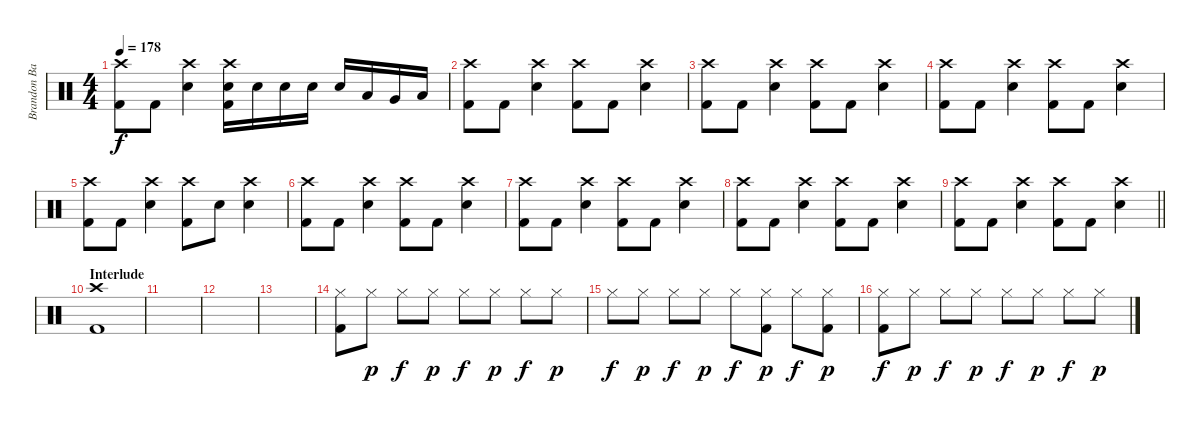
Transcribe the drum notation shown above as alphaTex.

\track ("Brandon Barnes - Drums" "Brandon Ba") {instrument percussion}
\staff {score}
\articulation defaults
\ts (4 4)
\tempo 178
\clef neutral
\ks c
("Crash high (hit)" "Kick (hit) 2").8{dy f} "Kick (hit) 2".8 ("Snare (hit) 2" "Crash high (hit)").4 ("Crash high (hit)" "Kick (hit) 2" "Snare (hit) 2").16 "Snare (hit) 2".16 "Snare (hit) 2".16 "Snare (hit) 2".16 "Snare (hit) 2".16 "Low Tom (hit)".16 "Very Low Tom (hit)".16 "Low Floor Tom (hit)".16 |
("Crash high (hit)" "Kick (hit) 2").8 "Kick (hit) 2".8 ("Snare (hit) 2" "Crash high (hit)").4 ("Crash high (hit)" "Kick (hit) 2").8 "Kick (hit) 2".8 ("Snare (hit) 2" "Crash high (hit)").4 |
("Crash high (hit)" "Kick (hit) 2").8 "Kick (hit) 2".8 ("Snare (hit) 2" "Crash high (hit)").4 ("Crash high (hit)" "Kick (hit) 2").8 "Kick (hit) 2".8 ("Snare (hit) 2" "Crash high (hit)").4 |
("Crash high (hit)" "Kick (hit) 2").8 "Kick (hit) 2".8 ("Snare (hit) 2" "Crash high (hit)").4 ("Crash high (hit)" "Kick (hit) 2").8 "Kick (hit) 2".8 ("Snare (hit) 2" "Crash high (hit)").4 |
("Crash high (hit)" "Kick (hit) 2").8 "Kick (hit) 2".8 ("Snare (hit) 2" "Crash high (hit)").4 ("Crash high (hit)" "Kick (hit) 2").8 "Snare (hit) 2".8 ("Snare (hit) 2" "Crash high (hit)").4 |
("Crash high (hit)" "Kick (hit) 2").8 "Kick (hit) 2".8 ("Snare (hit) 2" "Crash high (hit)").4 ("Crash high (hit)" "Kick (hit) 2").8 "Kick (hit) 2".8 ("Snare (hit) 2" "Crash high (hit)").4 |
("Crash high (hit)" "Kick (hit) 2").8 "Kick (hit) 2".8 ("Snare (hit) 2" "Crash high (hit)").4 ("Crash high (hit)" "Kick (hit) 2").8 "Kick (hit) 2".8 ("Snare (hit) 2" "Crash high (hit)").4 |
("Crash high (hit)" "Kick (hit) 2").8 "Kick (hit) 2".8 ("Snare (hit) 2" "Crash high (hit)").4 ("Crash high (hit)" "Kick (hit) 2").8 "Kick (hit) 2".8 ("Snare (hit) 2" "Crash high (hit)").4 |
\barLineRight lightlight
("Crash high (hit)" "Kick (hit) 2").8 "Kick (hit) 2".8 ("Snare (hit) 2" "Crash high (hit)").4 ("Crash high (hit)" "Kick (hit) 2").8 "Kick (hit) 2".8 ("Snare (hit) 2" "Crash high (hit)").4 |
\section ("" "Interlude")
("Crash high (hit)" "Kick (hit) 2").1 |
|
|
|
("Hi-Hat (closed)" "Kick (hit) 2").8 "Hi-Hat (closed)".8{dy p} "Hi-Hat (closed)".8{dy f} "Hi-Hat (closed)".8{dy p} "Hi-Hat (closed)".8{dy f} "Hi-Hat (closed)".8{dy p} "Hi-Hat (closed)".8{dy f} "Hi-Hat (closed)".8{dy p} |
"Hi-Hat (closed)".8{dy f} "Hi-Hat (closed)".8{dy p} "Hi-Hat (closed)".8{dy f} "Hi-Hat (closed)".8{dy p} "Hi-Hat (closed)".8{dy f} ("Hi-Hat (closed)" "Kick (hit) 2").8{dy p} "Hi-Hat (closed)".8{dy f} ("Hi-Hat (closed)" "Kick (hit) 2").8{dy p} |
("Hi-Hat (closed)" "Kick (hit) 2").8{dy f} "Hi-Hat (closed)".8{dy p} "Hi-Hat (closed)".8{dy f} "Hi-Hat (closed)".8{dy p} "Hi-Hat (closed)".8{dy f} "Hi-Hat (closed)".8{dy p} "Hi-Hat (closed)".8{dy f} "Hi-Hat (closed)".8{dy p}
